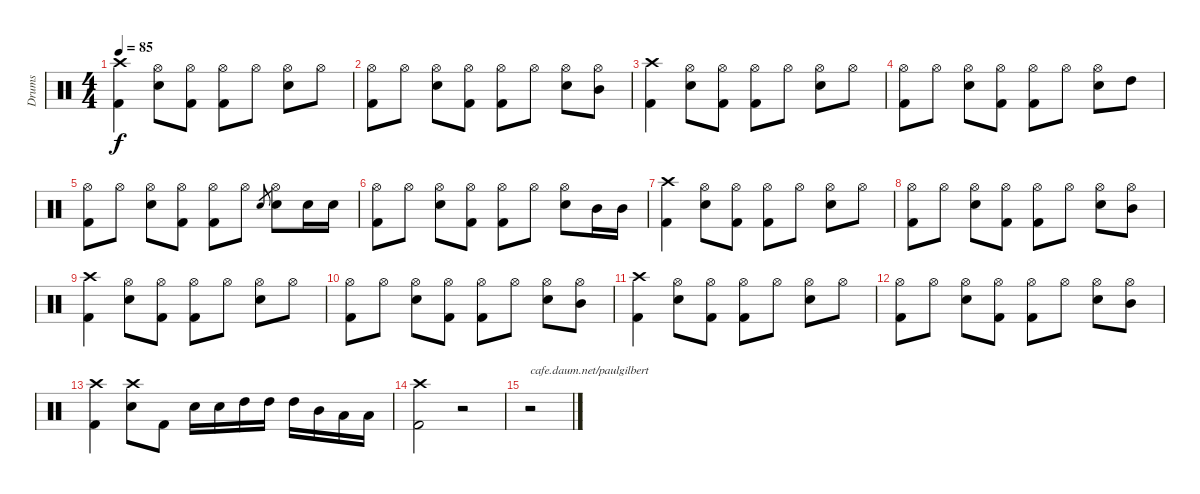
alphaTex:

\track ("Drums" "Drums") {instrument percussion}
\staff {score}
\articulation defaults
\ts (4 4)
\tempo 85
\clef neutral
\ks c
("Crash high (hit)" "Kick (hit) 2").4{dy f} ("Hi-Hat (open)" "Snare (hit) 2").8 ("Hi-Hat (open)" "Kick (hit) 2").8 ("Hi-Hat (open)" "Kick (hit) 2").8 "Hi-Hat (open)".8 ("Hi-Hat (open)" "Snare (hit) 2").8 "Hi-Hat (open)".8 |
("Hi-Hat (open)" "Kick (hit) 2").8 "Hi-Hat (open)".8 ("Hi-Hat (open)" "Snare (hit) 2").8 ("Hi-Hat (open)" "Kick (hit) 2").8 ("Hi-Hat (open)" "Kick (hit) 2").8 "Hi-Hat (open)".8 ("Hi-Hat (open)" "Snare (hit) 2").8 ("Hi-Hat (open)" "Mid Tom (hit)").8 |
("Crash high (hit)" "Kick (hit) 2").4 ("Hi-Hat (open)" "Snare (hit) 2").8 ("Hi-Hat (open)" "Kick (hit) 2").8 ("Hi-Hat (open)" "Kick (hit) 2").8 "Hi-Hat (open)".8 ("Hi-Hat (open)" "Snare (hit) 2").8 "Hi-Hat (open)".8 |
("Hi-Hat (open)" "Kick (hit) 2").8 "Hi-Hat (open)".8 ("Hi-Hat (open)" "Snare (hit) 2").8 ("Hi-Hat (open)" "Kick (hit) 2").8 ("Hi-Hat (open)" "Kick (hit) 2").8 "Hi-Hat (open)".8 ("Hi-Hat (open)" "Snare (hit) 2").8 "High Tom (hit)".8 |
("Hi-Hat (open)" "Kick (hit) 2").8 "Hi-Hat (open)".8 ("Hi-Hat (open)" "Snare (hit) 2").8 ("Hi-Hat (open)" "Kick (hit) 2").8 ("Hi-Hat (open)" "Kick (hit) 2").8 "Hi-Hat (open)".8 "Snare (hit) 2".8{gr} ("Hi-Hat (open)" "Snare (hit) 2").8 "Snare (hit) 2".16 "Snare (hit) 2".16 |
("Hi-Hat (open)" "Kick (hit) 2").8 "Hi-Hat (open)".8 ("Hi-Hat (open)" "Snare (hit) 2").8 ("Hi-Hat (open)" "Kick (hit) 2").8 ("Hi-Hat (open)" "Kick (hit) 2").8 "Hi-Hat (open)".8 ("Hi-Hat (open)" "Snare (hit) 2").8 "Mid Tom (hit)".16 "Mid Tom (hit)".16 |
("Crash high (hit)" "Kick (hit) 2").4 ("Hi-Hat (open)" "Snare (hit) 2").8 ("Hi-Hat (open)" "Kick (hit) 2").8 ("Hi-Hat (open)" "Kick (hit) 2").8 "Hi-Hat (open)".8 ("Hi-Hat (open)" "Snare (hit) 2").8 "Hi-Hat (open)".8 |
("Hi-Hat (open)" "Kick (hit) 2").8 "Hi-Hat (open)".8 ("Hi-Hat (open)" "Snare (hit) 2").8 ("Hi-Hat (open)" "Kick (hit) 2").8 ("Hi-Hat (open)" "Kick (hit) 2").8 "Hi-Hat (open)".8 ("Hi-Hat (open)" "Snare (hit) 2").8 ("Hi-Hat (open)" "Mid Tom (hit)").8 |
("Crash high (hit)" "Kick (hit) 2").4 ("Hi-Hat (open)" "Snare (hit) 2").8 ("Hi-Hat (open)" "Kick (hit) 2").8 ("Hi-Hat (open)" "Kick (hit) 2").8 "Hi-Hat (open)".8 ("Hi-Hat (open)" "Snare (hit) 2").8 "Hi-Hat (open)".8 |
("Hi-Hat (open)" "Kick (hit) 2").8 "Hi-Hat (open)".8 ("Hi-Hat (open)" "Snare (hit) 2").8 ("Hi-Hat (open)" "Kick (hit) 2").8 ("Hi-Hat (open)" "Kick (hit) 2").8 "Hi-Hat (open)".8 ("Hi-Hat (open)" "Snare (hit) 2").8 ("Hi-Hat (open)" "Mid Tom (hit)").8 |
("Crash high (hit)" "Kick (hit) 2").4 ("Hi-Hat (open)" "Snare (hit) 2").8 ("Hi-Hat (open)" "Kick (hit) 2").8 ("Hi-Hat (open)" "Kick (hit) 2").8 "Hi-Hat (open)".8 ("Hi-Hat (open)" "Snare (hit) 2").8 "Hi-Hat (open)".8 |
("Hi-Hat (open)" "Kick (hit) 2").8 "Hi-Hat (open)".8 ("Hi-Hat (open)" "Snare (hit) 2").8 ("Hi-Hat (open)" "Kick (hit) 2").8 ("Hi-Hat (open)" "Kick (hit) 2").8 "Hi-Hat (open)".8 ("Hi-Hat (open)" "Snare (hit) 2").8 ("Hi-Hat (open)" "Mid Tom (hit)").8 |
("Crash high (hit)" "Kick (hit) 2").4 ("Crash high (hit)" "Snare (hit) 2").8 "Kick (hit) 2".8 "Snare (hit) 2".16 "Snare (hit) 2".16 "High Tom (hit)".16 "High Tom (hit)".16 "High Tom (hit)".16 "Mid Tom (hit)".16 "Low Tom (hit)".16 "Low Tom (hit)".16 |
("Crash high (hit)" "Kick (hit) 2").2 r.2 |
r.2{txt "cafe.daum.net/paulgilbert"}
